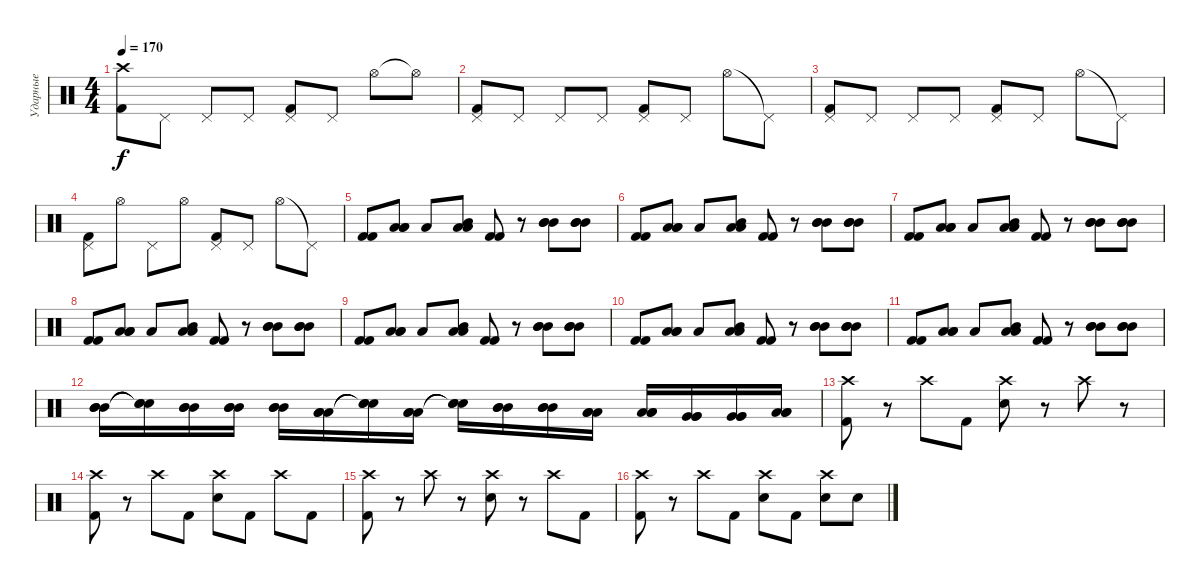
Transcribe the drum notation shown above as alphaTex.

\track ("Ударные" "Ударные") {instrument percussion}
\staff {score}
\articulation defaults
\ts (4 4)
\tempo 170
\clef neutral
\ks c
("Crash high (hit)" "Kick (hit) 2").8{dy f} "Pedal Hi-Hat (hit)".8 "Pedal Hi-Hat (hit)".8 "Pedal Hi-Hat (hit)".8 ("Pedal Hi-Hat (hit)" "Kick (hit) 2").8 "Pedal Hi-Hat (hit)".8 "Hi-Hat (open)".8 "Hi-Hat (open)"{t}.8 |
("Pedal Hi-Hat (hit)" "Kick (hit) 2").8 "Pedal Hi-Hat (hit)".8 "Pedal Hi-Hat (hit)".8 "Pedal Hi-Hat (hit)".8 ("Pedal Hi-Hat (hit)" "Kick (hit) 2").8 "Pedal Hi-Hat (hit)".8 "Hi-Hat (open)".8 "Pedal Hi-Hat (hit)"{t}.8 |
("Pedal Hi-Hat (hit)" "Kick (hit) 2").8 "Pedal Hi-Hat (hit)".8 "Pedal Hi-Hat (hit)".8 "Pedal Hi-Hat (hit)".8 ("Pedal Hi-Hat (hit)" "Kick (hit) 2").8 "Pedal Hi-Hat (hit)".8 "Hi-Hat (open)".8 "Pedal Hi-Hat (hit)"{t}.8 |
("Pedal Hi-Hat (hit)" "Kick (hit) 2").8 "Hi-Hat (open)".8 "Pedal Hi-Hat (hit)".8 "Hi-Hat (open)".8 ("Pedal Hi-Hat (hit)" "Kick (hit) 2").8 "Pedal Hi-Hat (hit)".8 "Hi-Hat (open)".8 "Pedal Hi-Hat (hit)"{t}.8 |
("Kick (hit) 2" "Kick (hit) 2").8 ("Low Tom (hit)" "Low Tom (hit)" "Low Tom (hit)").8 "Low Tom (hit)".8 ("Low Tom (hit)" "Mid Tom (hit)" "Low Tom (hit)").8 ("Kick (hit) 2" "Kick (hit) 2").8 r.8 ("Mid Tom (hit)" "Mid Tom (hit)" "Mid Tom (hit)").8 ("Mid Tom (hit)" "Mid Tom (hit)" "Mid Tom (hit)").8 |
("Kick (hit) 2" "Kick (hit) 2").8 ("Low Tom (hit)" "Low Tom (hit)" "Low Tom (hit)").8 "Low Tom (hit)".8 ("Low Tom (hit)" "Mid Tom (hit)" "Low Tom (hit)").8 ("Kick (hit) 2" "Kick (hit) 2").8 r.8 ("Mid Tom (hit)" "Mid Tom (hit)" "Mid Tom (hit)").8 ("Mid Tom (hit)" "Mid Tom (hit)" "Mid Tom (hit)").8 |
("Kick (hit) 2" "Kick (hit) 2").8 ("Low Tom (hit)" "Low Tom (hit)" "Low Tom (hit)").8 "Low Tom (hit)".8 ("Low Tom (hit)" "Mid Tom (hit)" "Low Tom (hit)").8 ("Kick (hit) 2" "Kick (hit) 2").8 r.8 ("Mid Tom (hit)" "Mid Tom (hit)" "Mid Tom (hit)").8 ("Mid Tom (hit)" "Mid Tom (hit)" "Mid Tom (hit)").8 |
("Kick (hit) 2" "Kick (hit) 2").8 ("Low Tom (hit)" "Low Tom (hit)" "Low Tom (hit)").8 "Low Tom (hit)".8 ("Low Tom (hit)" "Mid Tom (hit)" "Low Tom (hit)").8 ("Kick (hit) 2" "Kick (hit) 2").8 r.8 ("Mid Tom (hit)" "Mid Tom (hit)" "Mid Tom (hit)").8 ("Mid Tom (hit)" "Mid Tom (hit)" "Mid Tom (hit)").8 |
("Kick (hit) 2" "Kick (hit) 2").8 ("Low Tom (hit)" "Low Tom (hit)" "Low Tom (hit)").8 "Low Tom (hit)".8 ("Low Tom (hit)" "Mid Tom (hit)" "Low Tom (hit)").8 ("Kick (hit) 2" "Kick (hit) 2").8 r.8 ("Mid Tom (hit)" "Mid Tom (hit)" "Mid Tom (hit)").8 ("Mid Tom (hit)" "Mid Tom (hit)" "Mid Tom (hit)").8 |
("Kick (hit) 2" "Kick (hit) 2").8 ("Low Tom (hit)" "Low Tom (hit)" "Low Tom (hit)").8 "Low Tom (hit)".8 ("Low Tom (hit)" "Mid Tom (hit)" "Low Tom (hit)").8 ("Kick (hit) 2" "Kick (hit) 2").8 r.8 ("Mid Tom (hit)" "Mid Tom (hit)" "Mid Tom (hit)").8 ("Mid Tom (hit)" "Mid Tom (hit)" "Mid Tom (hit)").8 |
("Kick (hit) 2" "Kick (hit) 2").8 ("Low Tom (hit)" "Low Tom (hit)" "Low Tom (hit)").8 "Low Tom (hit)".8 ("Low Tom (hit)" "Mid Tom (hit)" "Low Tom (hit)").8 ("Kick (hit) 2" "Kick (hit) 2").8 r.8 ("Mid Tom (hit)" "Mid Tom (hit)" "Mid Tom (hit)").8 ("Mid Tom (hit)" "Mid Tom (hit)" "Mid Tom (hit)").8 |
("Mid Tom (hit)" "Mid Tom (hit)" "Mid Tom (hit)").16 ("Snare (hit)"{t} "Snare (hit)"{t} "Snare (hit)"{t}).16 ("Mid Tom (hit)" "Mid Tom (hit)" "Mid Tom (hit)").16 ("Mid Tom (hit)" "Mid Tom (hit)" "Mid Tom (hit)").16 ("Mid Tom (hit)" "Mid Tom (hit)" "Mid Tom (hit)").16 ("Low Tom (hit)" "Low Tom (hit)" "Low Tom (hit)").16 ("Snare (hit)"{t} "Snare (hit)"{t} "Snare (hit)"{t}).16 ("Low Tom (hit)" "Low Tom (hit)" "Low Tom (hit)").16 ("Snare (hit)"{t} "Snare (hit)"{t} "Snare (hit)"{t}).16 ("Mid Tom (hit)" "Mid Tom (hit)" "Mid Tom (hit)").16 ("Mid Tom (hit)" "Mid Tom (hit)" "Mid Tom (hit)").16 ("Low Tom (hit)" "Low Tom (hit)" "Low Tom (hit)").16 ("Low Tom (hit)" "Low Tom (hit)" "Low Tom (hit)").16 ("Very Low Tom (hit)" "Very Low Tom (hit)" "Very Low Tom (hit)").16 ("Very Low Tom (hit)" "Very Low Tom (hit)" "Very Low Tom (hit)").16 ("Low Floor Tom (hit)" "Low Floor Tom (hit)" "Low Floor Tom (hit)").16 |
("Crash high (hit)" "Kick (hit) 2").8 r.8 "Crash high (hit)".8 "Kick (hit) 2".8 ("Crash high (hit)" "Snare (hit) 2").8 r.8 "Crash high (hit)".8 r.8 |
("Crash high (hit)" "Kick (hit) 2").8 r.8 "Crash high (hit)".8 "Kick (hit) 2".8 ("Crash high (hit)" "Snare (hit) 2").8 "Kick (hit) 2".8 "Crash high (hit)".8 "Kick (hit) 2".8 |
("Crash high (hit)" "Kick (hit) 2").8 r.8 "Crash high (hit)".8 r.8 ("Crash high (hit)" "Snare (hit) 2").8 r.8 "Crash high (hit)".8 "Kick (hit) 2".8 |
("Crash high (hit)" "Kick (hit) 2").8 r.8 "Crash high (hit)".8 "Kick (hit) 2".8 ("Crash high (hit)" "Snare (hit) 2").8 "Kick (hit) 2".8 ("Crash high (hit)" "Snare (hit) 2").8 "Snare (hit) 2".8
